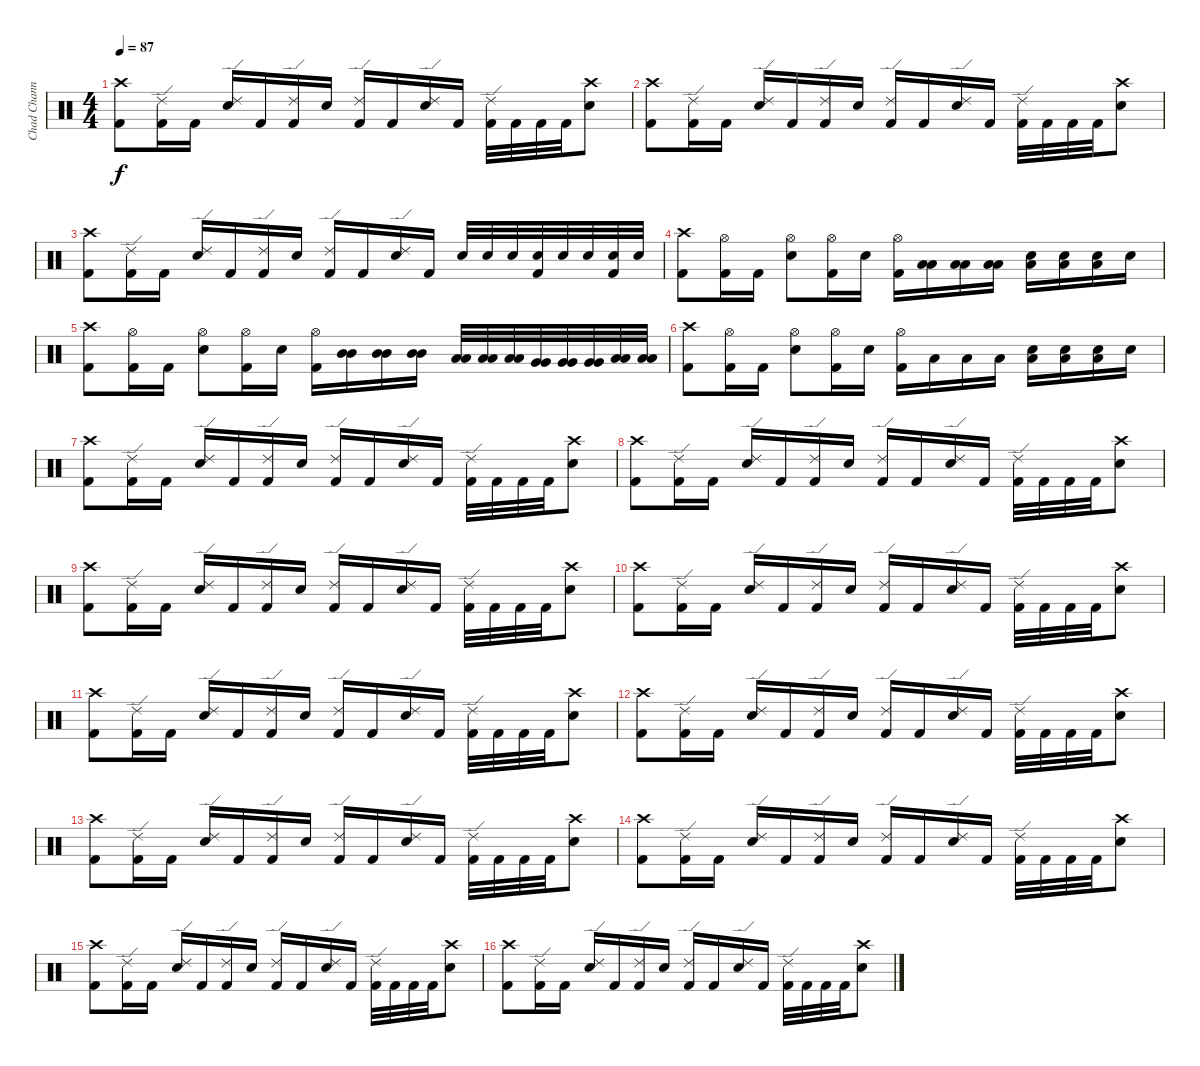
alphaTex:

\track ("Chad Channing" "Chad Chann") {instrument percussion}
\staff {score}
\articulation defaults
\ts (4 4)
\tempo 87
\clef neutral
\ks c
("Crash high (hit)" "Kick (hit) 2").8{dy f} ("Ride (edge) 2" "Kick (hit) 2").16 "Kick (hit) 2".16 ("Ride (edge) 2" "Snare (hit) 2").16 "Kick (hit) 2".16 ("Ride (edge) 2" "Kick (hit) 2").16 "Snare (hit) 2".16 ("Ride (edge) 2" "Kick (hit) 2").16 "Kick (hit) 2".16 ("Ride (edge) 2" "Snare (hit) 2").16 "Kick (hit) 2".16 ("Ride (edge) 2" "Kick (hit) 2").32 "Kick (hit) 2".32 "Kick (hit) 2".32 "Kick (hit) 2".32 ("Crash high (hit)" "Snare (hit) 2").8 |
("Crash high (hit)" "Kick (hit) 2").8 ("Ride (edge) 2" "Kick (hit) 2").16 "Kick (hit) 2".16 ("Ride (edge) 2" "Snare (hit) 2").16 "Kick (hit) 2".16 ("Ride (edge) 2" "Kick (hit) 2").16 "Snare (hit) 2".16 ("Ride (edge) 2" "Kick (hit) 2").16 "Kick (hit) 2".16 ("Ride (edge) 2" "Snare (hit) 2").16 "Kick (hit) 2".16 ("Ride (edge) 2" "Kick (hit) 2").32 "Kick (hit) 2".32 "Kick (hit) 2".32 "Kick (hit) 2".32 ("Crash high (hit)" "Snare (hit) 2").8 |
("Crash high (hit)" "Kick (hit) 2").8 ("Ride (edge) 2" "Kick (hit) 2").16 "Kick (hit) 2".16 ("Ride (edge) 2" "Snare (hit) 2").16 "Kick (hit) 2".16 ("Ride (edge) 2" "Kick (hit) 2").16 "Snare (hit) 2".16 ("Ride (edge) 2" "Kick (hit) 2").16 "Kick (hit) 2".16 ("Ride (edge) 2" "Snare (hit) 2").16 "Kick (hit) 2".16 "Snare (hit) 2".32 "Snare (hit) 2".32 "Snare (hit) 2".32 ("Snare (hit) 2" "Kick (hit) 2").32 "Snare (hit) 2".32 "Snare (hit) 2".32 ("Snare (hit) 2" "Kick (hit) 2").32 "Snare (hit) 2".32 |
("Crash high (hit)" "Kick (hit) 2").8 ("Hi-Hat (open)" "Kick (hit) 2").16 "Kick (hit) 2".16 ("Hi-Hat (open)" "Snare (hit) 2").8 ("Hi-Hat (open)" "Kick (hit) 2").16 "Snare (hit) 2".16 ("Hi-Hat (open)" "Kick (hit) 2").16 ("Low Tom (hit)" "Low Tom (hit)").16 ("Low Tom (hit)" "Low Tom (hit)").16 ("Low Tom (hit)" "Low Tom (hit)").16 ("Snare (hit) 2" "Low Tom (hit)").16 ("Snare (hit) 2" "Low Tom (hit)").16 ("Snare (hit) 2" "Low Tom (hit)").16 "Snare (hit) 2".16 |
("Crash high (hit)" "Kick (hit) 2").8 ("Hi-Hat (open)" "Kick (hit) 2").16 "Kick (hit) 2".16 ("Hi-Hat (open)" "Snare (hit) 2").8 ("Hi-Hat (open)" "Kick (hit) 2").16 "Snare (hit) 2".16 ("Hi-Hat (open)" "Kick (hit) 2").16 ("Mid Tom (hit)" "Mid Tom (hit)").16 ("Mid Tom (hit)" "Mid Tom (hit)").16 ("Mid Tom (hit)" "Mid Tom (hit)").16 ("Low Tom (hit)" "Low Tom (hit)").32 ("Low Tom (hit)" "Low Tom (hit)").32 ("Low Tom (hit)" "Low Tom (hit)").32 ("Very Low Tom (hit)" "Very Low Tom (hit)").32 ("Very Low Tom (hit)" "Very Low Tom (hit)").32 ("Very Low Tom (hit)" "Very Low Tom (hit)").32 ("Low Floor Tom (hit)" "Low Floor Tom (hit)").32 ("Low Floor Tom (hit)" "Low Floor Tom (hit)").32 |
("Crash high (hit)" "Kick (hit) 2").8 ("Hi-Hat (open)" "Kick (hit) 2").16 "Kick (hit) 2".16 ("Hi-Hat (open)" "Snare (hit) 2").8 ("Hi-Hat (open)" "Kick (hit) 2").16 "Snare (hit) 2".16 ("Hi-Hat (open)" "Kick (hit) 2").16 "Low Tom (hit)".16 "Low Tom (hit)".16 "Low Tom (hit)".16 ("Snare (hit) 2" "Low Tom (hit)").16 ("Snare (hit) 2" "Low Tom (hit)").16 ("Snare (hit) 2" "Low Tom (hit)").16 "Snare (hit) 2".16 |
("Crash high (hit)" "Kick (hit) 2").8 ("Ride (edge) 2" "Kick (hit) 2").16 "Kick (hit) 2".16 ("Ride (edge) 2" "Snare (hit) 2").16 "Kick (hit) 2".16 ("Ride (edge) 2" "Kick (hit) 2").16 "Snare (hit) 2".16 ("Ride (edge) 2" "Kick (hit) 2").16 "Kick (hit) 2".16 ("Ride (edge) 2" "Snare (hit) 2").16 "Kick (hit) 2".16 ("Ride (edge) 2" "Kick (hit) 2").32 "Kick (hit) 2".32 "Kick (hit) 2".32 "Kick (hit) 2".32 ("Crash high (hit)" "Snare (hit) 2").8 |
("Crash high (hit)" "Kick (hit) 2").8 ("Ride (edge) 2" "Kick (hit) 2").16 "Kick (hit) 2".16 ("Ride (edge) 2" "Snare (hit) 2").16 "Kick (hit) 2".16 ("Ride (edge) 2" "Kick (hit) 2").16 "Snare (hit) 2".16 ("Ride (edge) 2" "Kick (hit) 2").16 "Kick (hit) 2".16 ("Ride (edge) 2" "Snare (hit) 2").16 "Kick (hit) 2".16 ("Ride (edge) 2" "Kick (hit) 2").32 "Kick (hit) 2".32 "Kick (hit) 2".32 "Kick (hit) 2".32 ("Crash high (hit)" "Snare (hit) 2").8 |
("Crash high (hit)" "Kick (hit) 2").8 ("Ride (edge) 2" "Kick (hit) 2").16 "Kick (hit) 2".16 ("Ride (edge) 2" "Snare (hit) 2").16 "Kick (hit) 2".16 ("Ride (edge) 2" "Kick (hit) 2").16 "Snare (hit) 2".16 ("Ride (edge) 2" "Kick (hit) 2").16 "Kick (hit) 2".16 ("Ride (edge) 2" "Snare (hit) 2").16 "Kick (hit) 2".16 ("Ride (edge) 2" "Kick (hit) 2").32 "Kick (hit) 2".32 "Kick (hit) 2".32 "Kick (hit) 2".32 ("Crash high (hit)" "Snare (hit) 2").8 |
("Crash high (hit)" "Kick (hit) 2").8 ("Ride (edge) 2" "Kick (hit) 2").16 "Kick (hit) 2".16 ("Ride (edge) 2" "Snare (hit) 2").16 "Kick (hit) 2".16 ("Ride (edge) 2" "Kick (hit) 2").16 "Snare (hit) 2".16 ("Ride (edge) 2" "Kick (hit) 2").16 "Kick (hit) 2".16 ("Ride (edge) 2" "Snare (hit) 2").16 "Kick (hit) 2".16 ("Ride (edge) 2" "Kick (hit) 2").32 "Kick (hit) 2".32 "Kick (hit) 2".32 "Kick (hit) 2".32 ("Crash high (hit)" "Snare (hit) 2").8 |
("Crash high (hit)" "Kick (hit) 2").8 ("Ride (edge) 2" "Kick (hit) 2").16 "Kick (hit) 2".16 ("Ride (edge) 2" "Snare (hit) 2").16 "Kick (hit) 2".16 ("Ride (edge) 2" "Kick (hit) 2").16 "Snare (hit) 2".16 ("Ride (edge) 2" "Kick (hit) 2").16 "Kick (hit) 2".16 ("Ride (edge) 2" "Snare (hit) 2").16 "Kick (hit) 2".16 ("Ride (edge) 2" "Kick (hit) 2").32 "Kick (hit) 2".32 "Kick (hit) 2".32 "Kick (hit) 2".32 ("Crash high (hit)" "Snare (hit) 2").8 |
("Crash high (hit)" "Kick (hit) 2").8 ("Ride (edge) 2" "Kick (hit) 2").16 "Kick (hit) 2".16 ("Ride (edge) 2" "Snare (hit) 2").16 "Kick (hit) 2".16 ("Ride (edge) 2" "Kick (hit) 2").16 "Snare (hit) 2".16 ("Ride (edge) 2" "Kick (hit) 2").16 "Kick (hit) 2".16 ("Ride (edge) 2" "Snare (hit) 2").16 "Kick (hit) 2".16 ("Ride (edge) 2" "Kick (hit) 2").32 "Kick (hit) 2".32 "Kick (hit) 2".32 "Kick (hit) 2".32 ("Crash high (hit)" "Snare (hit) 2").8 |
("Crash high (hit)" "Kick (hit) 2").8 ("Ride (edge) 2" "Kick (hit) 2").16 "Kick (hit) 2".16 ("Ride (edge) 2" "Snare (hit) 2").16 "Kick (hit) 2".16 ("Ride (edge) 2" "Kick (hit) 2").16 "Snare (hit) 2".16 ("Ride (edge) 2" "Kick (hit) 2").16 "Kick (hit) 2".16 ("Ride (edge) 2" "Snare (hit) 2").16 "Kick (hit) 2".16 ("Ride (edge) 2" "Kick (hit) 2").32 "Kick (hit) 2".32 "Kick (hit) 2".32 "Kick (hit) 2".32 ("Crash high (hit)" "Snare (hit) 2").8 |
("Crash high (hit)" "Kick (hit) 2").8 ("Ride (edge) 2" "Kick (hit) 2").16 "Kick (hit) 2".16 ("Ride (edge) 2" "Snare (hit) 2").16 "Kick (hit) 2".16 ("Ride (edge) 2" "Kick (hit) 2").16 "Snare (hit) 2".16 ("Ride (edge) 2" "Kick (hit) 2").16 "Kick (hit) 2".16 ("Ride (edge) 2" "Snare (hit) 2").16 "Kick (hit) 2".16 ("Ride (edge) 2" "Kick (hit) 2").32 "Kick (hit) 2".32 "Kick (hit) 2".32 "Kick (hit) 2".32 ("Crash high (hit)" "Snare (hit) 2").8 |
("Crash high (hit)" "Kick (hit) 2").8 ("Ride (edge) 2" "Kick (hit) 2").16 "Kick (hit) 2".16 ("Ride (edge) 2" "Snare (hit) 2").16 "Kick (hit) 2".16 ("Ride (edge) 2" "Kick (hit) 2").16 "Snare (hit) 2".16 ("Ride (edge) 2" "Kick (hit) 2").16 "Kick (hit) 2".16 ("Ride (edge) 2" "Snare (hit) 2").16 "Kick (hit) 2".16 ("Ride (edge) 2" "Kick (hit) 2").32 "Kick (hit) 2".32 "Kick (hit) 2".32 "Kick (hit) 2".32 ("Crash high (hit)" "Snare (hit) 2").8 |
("Crash high (hit)" "Kick (hit) 2").8 ("Ride (edge) 2" "Kick (hit) 2").16 "Kick (hit) 2".16 ("Ride (edge) 2" "Snare (hit) 2").16 "Kick (hit) 2".16 ("Ride (edge) 2" "Kick (hit) 2").16 "Snare (hit) 2".16 ("Ride (edge) 2" "Kick (hit) 2").16 "Kick (hit) 2".16 ("Ride (edge) 2" "Snare (hit) 2").16 "Kick (hit) 2".16 ("Ride (edge) 2" "Kick (hit) 2").32 "Kick (hit) 2".32 "Kick (hit) 2".32 "Kick (hit) 2".32 ("Crash high (hit)" "Snare (hit) 2").8
